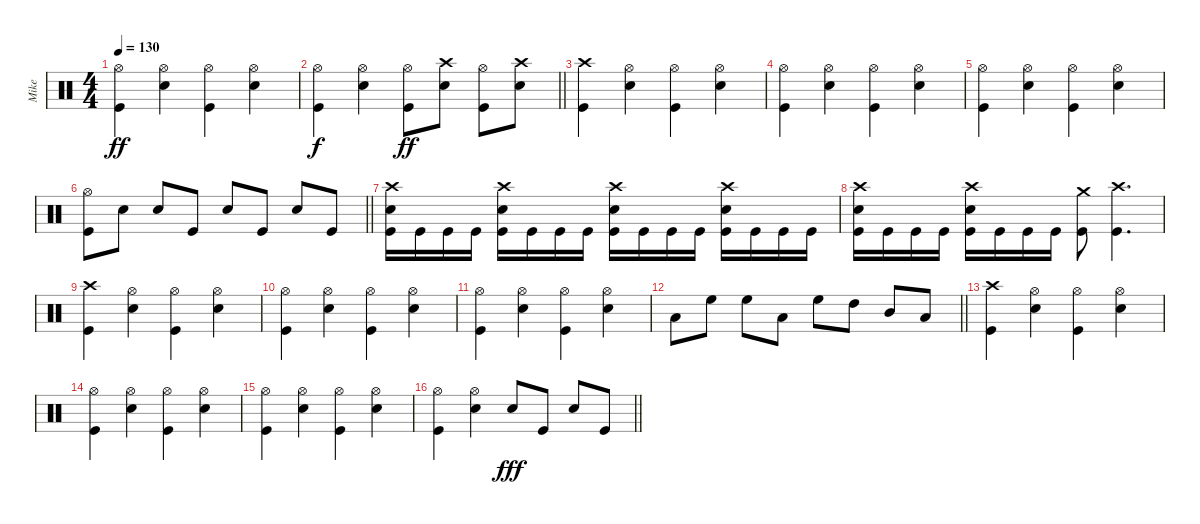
\track ("Mike" "Mike") {instrument percussion}
\staff {score}
\articulation defaults
\ts (4 4)
\tempo 130
\clef neutral
\ks c
("Kick (hit)" "Hi-Hat (open)").4{dy ff} ("Hi-Hat (open)" "Snare (hit) 2").4 ("Kick (hit)" "Hi-Hat (open)").4 ("Hi-Hat (open)" "Snare (hit) 2").4 |
\barLineRight lightlight
("Hi-Hat (open)" "Kick (hit)").4{dy f} ("Snare (hit) 2" "Hi-Hat (open)").4 ("Hi-Hat (open)" "Kick (hit)").8{dy ff} ("Crash high (hit)" "Snare (hit) 2").8 ("Hi-Hat (open)" "Kick (hit)").8 ("Crash high (hit)" "Snare (hit) 2").8 |
("Crash high (hit)" "Kick (hit)").4 ("Snare (hit) 2" "Hi-Hat (open)").4 ("Hi-Hat (open)" "Kick (hit)").4 ("Snare (hit) 2" "Hi-Hat (open)").4 |
("Hi-Hat (open)" "Kick (hit)").4 ("Snare (hit) 2" "Hi-Hat (open)").4 ("Kick (hit)" "Hi-Hat (open)").4 ("Hi-Hat (open)" "Snare (hit) 2").4 |
("Kick (hit)" "Hi-Hat (open)").4 ("Hi-Hat (open)" "Snare (hit) 2").4 ("Kick (hit)" "Hi-Hat (open)").4 ("Hi-Hat (open)" "Snare (hit) 2").4 |
\barLineRight lightlight
("Hi-Hat (open)" "Kick (hit)").8 "Snare (hit) 2".8 "Snare (hit) 2".8 "Kick (hit)".8 "Snare (hit) 2".8 "Kick (hit)".8 "Snare (hit) 2".8 "Kick (hit)".8 |
("Crash high (hit)" "Snare (hit) 2" "Kick (hit)").16 "Kick (hit)".16 "Kick (hit)".16 "Kick (hit)".16 ("Snare (hit) 2" "Crash high (hit)" "Kick (hit)").16 "Kick (hit)".16 "Kick (hit)".16 "Kick (hit)".16 ("Crash high (hit)" "Snare (hit) 2" "Kick (hit)").16 "Kick (hit)".16 "Kick (hit)".16 "Kick (hit)".16 ("Crash high (hit)" "Snare (hit) 2" "Kick (hit)").16 "Kick (hit)".16 "Kick (hit)".16 "Kick (hit)".16 |
("Snare (hit) 2" "Crash high (hit)" "Kick (hit)").16 "Kick (hit)".16 "Kick (hit)".16 "Kick (hit)".16 ("Crash high (hit)" "Snare (hit) 2" "Kick (hit)").16 "Kick (hit)".16 "Kick (hit)".16 "Kick (hit)".16 ("Crash medium (hit)" "Kick (hit)").8 ("Crash high (hit)" "Kick (hit)").4{d} |
("Crash high (hit)" "Kick (hit)").4 ("Snare (hit) 2" "Hi-Hat (open)").4 ("Hi-Hat (open)" "Kick (hit)").4 ("Snare (hit) 2" "Hi-Hat (open)").4 |
("Hi-Hat (open)" "Kick (hit)").4 ("Snare (hit) 2" "Hi-Hat (open)").4 ("Kick (hit)" "Hi-Hat (open)").4 ("Hi-Hat (open)" "Snare (hit) 2").4 |
("Kick (hit)" "Hi-Hat (open)").4 ("Hi-Hat (open)" "Snare (hit) 2").4 ("Kick (hit)" "Hi-Hat (open)").4 ("Hi-Hat (open)" "Snare (hit) 2").4 |
\barLineRight lightlight "Low Tom (hit)".8 "High Floor Tom (hit)".8 "High Floor Tom (hit)".8 "Low Tom (hit)".8 "High Floor Tom (hit)".8 "High Tom (hit)".8 "Mid Tom (hit)".8 "Low Tom (hit)".8
|
("Crash high (hit)" "Kick (hit)").4 ("Snare (hit) 2" "Hi-Hat (open)").4 ("Hi-Hat (open)" "Kick (hit)").4 ("Snare (hit) 2" "Hi-Hat (open)").4 |
("Hi-Hat (open)" "Kick (hit)").4 ("Snare (hit) 2" "Hi-Hat (open)").4 ("Kick (hit)" "Hi-Hat (open)").4 ("Hi-Hat (open)" "Snare (hit) 2").4 |
("Kick (hit)" "Hi-Hat (open)").4 ("Hi-Hat (open)" "Snare (hit) 2").4 ("Kick (hit)" "Hi-Hat (open)").4 ("Hi-Hat (open)" "Snare (hit) 2").4 |
\barLineRight lightlight
("Kick (hit)" "Hi-Hat (open)").4 ("Hi-Hat (open)" "Snare (hit) 2").4 "Snare (hit) 2".8{dy fff} "Kick (hit)".8 "Snare (hit) 2".8 "Kick (hit)".8
